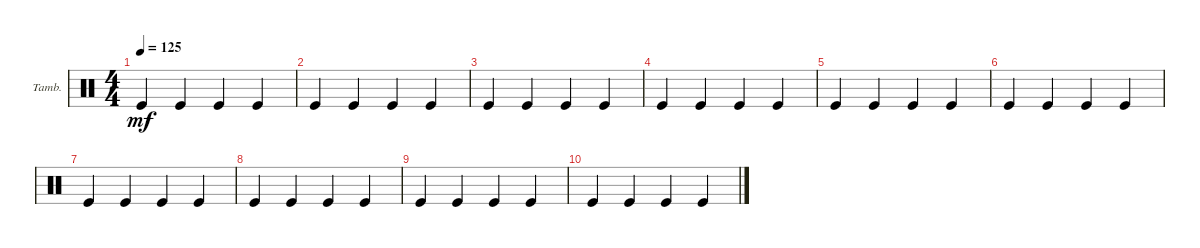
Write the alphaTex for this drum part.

\defaultSystemsLayout 4
\bracketExtendMode groupsimilarinstruments
\firstSystemTrackNameOrientation horizontal
\otherSystemsTrackNameOrientation horizontal
\track ("Tambourine" "Tamb.") {instrument percussion}
\staff {score}
\articulation defaults
\ts (4 4)
\tempo 125
\clef neutral
\ks c "Kick (hit)".4{dy mf} "Kick (hit)".4 "Kick (hit)".4 "Kick (hit)".4
|
"Kick (hit)".4 "Kick (hit)".4 "Kick (hit)".4 "Kick (hit)".4 |
"Kick (hit)".4 "Kick (hit)".4 "Kick (hit)".4 "Kick (hit)".4 |
"Kick (hit)".4 "Kick (hit)".4 "Kick (hit)".4 "Kick (hit)".4 |
"Kick (hit)".4 "Kick (hit)".4 "Kick (hit)".4 "Kick (hit)".4 |
"Kick (hit)".4 "Kick (hit)".4 "Kick (hit)".4 "Kick (hit)".4 |
"Kick (hit)".4 "Kick (hit)".4 "Kick (hit)".4 "Kick (hit)".4 |
"Kick (hit)".4 "Kick (hit)".4 "Kick (hit)".4 "Kick (hit)".4 |
"Kick (hit)".4 "Kick (hit)".4 "Kick (hit)".4 "Kick (hit)".4 |
"Kick (hit)".4 "Kick (hit)".4 "Kick (hit)".4 "Kick (hit)".4
